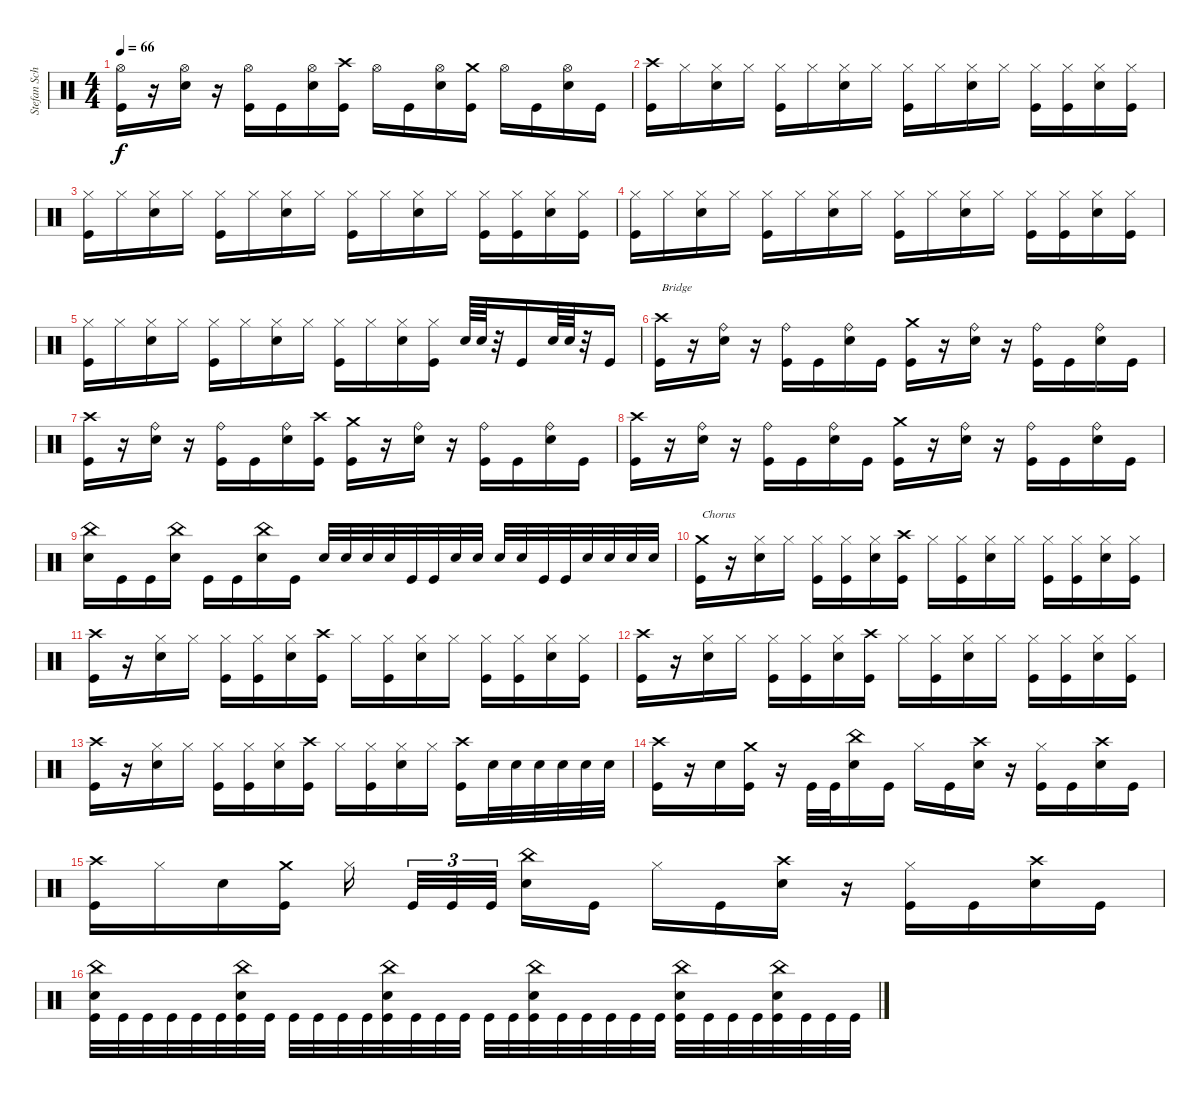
\track ("Stefan Schwarzmann" "Stefan Sch") {instrument percussion}
\staff {score}
\articulation defaults
\ts (4 4)
\tempo 66
\clef neutral
\ks c
("Kick (hit)" "Hi-Hat (open)").16{dy f} r.16 ("Snare (hit) 2" "Hi-Hat (open)").16 r.16 ("Kick (hit)" "Hi-Hat (open)").16 "Kick (hit)".16 ("Snare (hit) 2" "Hi-Hat (open)").16 ("Kick (hit)" "Crash high (hit)").16 "Hi-Hat (open)".16 "Kick (hit)".16 ("Snare (hit) 2" "Hi-Hat (open)").16 ("Kick (hit)" "Crash medium (hit)").16 "Hi-Hat (open)".16 "Kick (hit)".16 ("Snare (hit) 2" "Hi-Hat (open)").16 "Kick (hit)".16 |
("Kick (hit)" "Crash high (hit)").16 "Hi-Hat (closed)".16 ("Hi-Hat (closed)" "Snare (hit) 2").16 "Hi-Hat (closed)".16 ("Hi-Hat (closed)" "Kick (hit)").16 "Hi-Hat (closed)".16 ("Snare (hit) 2" "Hi-Hat (closed)").16 "Hi-Hat (closed)".16 ("Hi-Hat (closed)" "Kick (hit)").16 "Hi-Hat (closed)".16 ("Snare (hit) 2" "Hi-Hat (closed)").16 "Hi-Hat (closed)".16 ("Kick (hit)" "Hi-Hat (closed)").16 ("Kick (hit)" "Hi-Hat (closed)").16 ("Snare (hit) 2" "Hi-Hat (closed)").16 ("Kick (hit)" "Hi-Hat (closed)").16 |
("Kick (hit)" "Hi-Hat (closed)").16 "Hi-Hat (closed)".16 ("Hi-Hat (closed)" "Snare (hit) 2").16 "Hi-Hat (closed)".16 ("Hi-Hat (closed)" "Kick (hit)").16 "Hi-Hat (closed)".16 ("Snare (hit) 2" "Hi-Hat (closed)").16 "Hi-Hat (closed)".16 ("Hi-Hat (closed)" "Kick (hit)").16 "Hi-Hat (closed)".16 ("Snare (hit) 2" "Hi-Hat (closed)").16 "Hi-Hat (closed)".16 ("Kick (hit)" "Hi-Hat (closed)").16 ("Kick (hit)" "Hi-Hat (closed)").16 ("Snare (hit) 2" "Hi-Hat (closed)").16 ("Kick (hit)" "Hi-Hat (closed)").16 |
("Kick (hit)" "Hi-Hat (closed)").16 "Hi-Hat (closed)".16 ("Hi-Hat (closed)" "Snare (hit) 2").16 "Hi-Hat (closed)".16 ("Hi-Hat (closed)" "Kick (hit)").16 "Hi-Hat (closed)".16 ("Snare (hit) 2" "Hi-Hat (closed)").16 "Hi-Hat (closed)".16 ("Hi-Hat (closed)" "Kick (hit)").16 "Hi-Hat (closed)".16 ("Snare (hit) 2" "Hi-Hat (closed)").16 "Hi-Hat (closed)".16 ("Kick (hit)" "Hi-Hat (closed)").16 ("Kick (hit)" "Hi-Hat (closed)").16 ("Snare (hit) 2" "Hi-Hat (closed)").16 ("Kick (hit)" "Hi-Hat (closed)").16 |
("Kick (hit)" "Hi-Hat (closed)").16 "Hi-Hat (closed)".16 ("Hi-Hat (closed)" "Snare (hit) 2").16 "Hi-Hat (closed)".16 ("Hi-Hat (closed)" "Kick (hit)").16 "Hi-Hat (closed)".16 ("Snare (hit) 2" "Hi-Hat (closed)").16 "Hi-Hat (closed)".16 ("Hi-Hat (closed)" "Kick (hit)").16 "Hi-Hat (closed)".16 ("Snare (hit) 2" "Hi-Hat (closed)").16 ("Kick (hit)" "Hi-Hat (closed)").16 "Snare (hit) 2".64 "Snare (hit) 2".64 r.32 "Kick (hit)".16 "Snare (hit) 2".64 "Snare (hit) 2".64 r.32 "Kick (hit)".16 |
("Kick (hit)" "Crash high (hit)").16{txt "Bridge"} r.16 ("Snare (hit) 2" "Ride (bell)").16 r.16 ("Kick (hit)" "Ride (bell)").16 "Kick (hit)".16 ("Snare (hit) 2" "Ride (bell)").16 "Kick (hit)".16 ("Kick (hit)" "Crash medium (hit)").16 r.16 ("Snare (hit) 2" "Ride (bell)").16 r.16 ("Kick (hit)" "Ride (bell)").16 "Kick (hit)".16 ("Ride (bell)" "Snare (hit) 2").16 "Kick (hit)".16 |
("Kick (hit)" "Crash high (hit)").16 r.16 ("Snare (hit) 2" "Ride (bell)").16 r.16 ("Kick (hit)" "Ride (bell)").16 "Kick (hit)".16 ("Snare (hit) 2" "Ride (bell)").16 ("Kick (hit)" "Crash high (hit)").16 ("Kick (hit)" "Crash medium (hit)").16 r.16 ("Snare (hit) 2" "Ride (bell)").16 r.16 ("Kick (hit)" "Ride (bell)").16 "Kick (hit)".16 ("Ride (bell)" "Snare (hit) 2").16 "Kick (hit)".16 |
("Kick (hit)" "Crash high (hit)").16 r.16 ("Snare (hit) 2" "Ride (bell)").16 r.16 ("Kick (hit)" "Ride (bell)").16 "Kick (hit)".16 ("Snare (hit) 2" "Ride (bell)").16 "Kick (hit)".16 ("Kick (hit)" "Crash medium (hit)").16 r.16 ("Snare (hit) 2" "Ride (bell)").16 r.16 ("Kick (hit)" "Ride (bell)").16 "Kick (hit)".16 ("Ride (bell)" "Snare (hit) 2").16 "Kick (hit)".16 |
("Snare (hit) 2" "China (hit)").16 "Kick (hit)".16 "Kick (hit)".16 ("Snare (hit) 2" "China (hit)").16 "Kick (hit)".16 "Kick (hit)".16 ("Snare (hit) 2" "China (hit)").16 "Kick (hit)".16 "Snare (hit) 2".32 "Snare (hit) 2".32 "Snare (hit) 2".32 "Snare (hit) 2".32 "Kick (hit)".32 "Kick (hit)".32 "Snare (hit) 2".32 "Snare (hit) 2".32 "Snare (hit) 2".32 "Snare (hit) 2".32 "Kick (hit)".32 "Kick (hit)".32 "Snare (hit) 2".32 "Snare (hit) 2".32 "Snare (hit) 2".32 "Snare (hit) 2".32 |
("Kick (hit)" "Crash medium (hit)").16{txt "Chorus"} r.16 ("Snare (hit) 2" "Hi-Hat (closed)").16 "Hi-Hat (closed)".16 ("Kick (hit)" "Hi-Hat (closed)").16 ("Kick (hit)" "Hi-Hat (closed)").16 ("Snare (hit) 2" "Hi-Hat (closed)").16 ("Kick (hit)" "Crash high (hit)").16 "Hi-Hat (closed)".16 ("Kick (hit)" "Hi-Hat (closed)").16 ("Snare (hit) 2" "Hi-Hat (closed)").16 "Hi-Hat (closed)".16 ("Kick (hit)" "Hi-Hat (closed)").16 ("Kick (hit)" "Hi-Hat (closed)").16 ("Snare (hit) 2" "Hi-Hat (closed)").16 ("Kick (hit)" "Hi-Hat (closed)").16 |
("Kick (hit)" "Crash high (hit)").16 r.16 ("Snare (hit) 2" "Hi-Hat (closed)").16 "Hi-Hat (closed)".16 ("Kick (hit)" "Hi-Hat (closed)").16 ("Kick (hit)" "Hi-Hat (closed)").16 ("Snare (hit) 2" "Hi-Hat (closed)").16 ("Kick (hit)" "Crash high (hit)").16 "Hi-Hat (closed)".16 ("Kick (hit)" "Hi-Hat (closed)").16 ("Snare (hit) 2" "Hi-Hat (closed)").16 "Hi-Hat (closed)".16 ("Kick (hit)" "Hi-Hat (closed)").16 ("Kick (hit)" "Hi-Hat (closed)").16 ("Snare (hit) 2" "Hi-Hat (closed)").16 ("Kick (hit)" "Hi-Hat (closed)").16 |
("Kick (hit)" "Crash high (hit)").16 r.16 ("Snare (hit) 2" "Hi-Hat (closed)").16 "Hi-Hat (closed)".16 ("Kick (hit)" "Hi-Hat (closed)").16 ("Kick (hit)" "Hi-Hat (closed)").16 ("Snare (hit) 2" "Hi-Hat (closed)").16 ("Kick (hit)" "Crash high (hit)").16 "Hi-Hat (closed)".16 ("Kick (hit)" "Hi-Hat (closed)").16 ("Snare (hit) 2" "Hi-Hat (closed)").16 "Hi-Hat (closed)".16 ("Kick (hit)" "Hi-Hat (closed)").16 ("Kick (hit)" "Hi-Hat (closed)").16 ("Snare (hit) 2" "Hi-Hat (closed)").16 ("Kick (hit)" "Hi-Hat (closed)").16 |
("Kick (hit)" "Crash high (hit)").16 r.16 ("Snare (hit) 2" "Hi-Hat (closed)").16 "Hi-Hat (closed)".16 ("Kick (hit)" "Hi-Hat (closed)").16 ("Kick (hit)" "Hi-Hat (closed)").16 ("Snare (hit) 2" "Hi-Hat (closed)").16 ("Kick (hit)" "Crash high (hit)").16 "Hi-Hat (closed)".16 ("Kick (hit)" "Hi-Hat (closed)").16 ("Snare (hit) 2" "Hi-Hat (closed)").16 "Hi-Hat (closed)".16 ("Kick (hit)" "Crash high (hit)").16 "Snare (hit) 2".32 "Snare (hit) 2".32 "Snare (hit) 2".32 "Snare (hit) 2".32 "Snare (hit) 2".32 "Snare (hit) 2".32 |
("Kick (hit)" "Crash high (hit)").16 r.16 "Snare (hit) 2".16 ("Kick (hit)" "Crash medium (hit)").16 r.16 "Kick (hit)".32 "Kick (hit)".32 ("Snare (hit) 2" "China (hit)").16 "Kick (hit)".16 "Hi-Hat (closed)".16 "Kick (hit)".16 ("Crash high (hit)" "Snare (hit) 2").16 r.16 ("Kick (hit)" "Hi-Hat (closed)").16 "Kick (hit)".16 ("Snare (hit) 2" "Crash high (hit)").16 "Kick (hit)".16 |
("Kick (hit)" "Crash high (hit)").16 "Hi-Hat (closed)".16 "Snare (hit) 2".16 ("Kick (hit)" "Crash medium (hit)").16 "Hi-Hat (closed)".16 "Kick (hit)".32{tu (3 2)} "Kick (hit)".32{tu (3 2)} "Kick (hit)".32{tu (3 2)} ("Snare (hit) 2" "China (hit)").16 "Kick (hit)".16 "Hi-Hat (closed)".16 "Kick (hit)".16 ("Crash high (hit)" "Snare (hit) 2").16 r.16 ("Kick (hit)" "Hi-Hat (closed)").16 "Kick (hit)".16 ("Snare (hit) 2" "Crash high (hit)").16 "Kick (hit)".16 |
("Snare (hit) 2" "Kick (hit)" "China (hit)").32 "Kick (hit)".32 "Kick (hit)".32 "Kick (hit)".32 "Kick (hit)".32 "Kick (hit)".32 ("Kick (hit)" "Snare (hit) 2" "China (hit)").32 "Kick (hit)".32 "Kick (hit)".32 "Kick (hit)".32 "Kick (hit)".32 "Kick (hit)".32 ("Kick (hit)" "Snare (hit) 2" "China (hit)").32 "Kick (hit)".32 "Kick (hit)".32 "Kick (hit)".32 "Kick (hit)".32 "Kick (hit)".32 ("Snare (hit) 2" "China (hit)" "Kick (hit)").32 "Kick (hit)".32 "Kick (hit)".32 "Kick (hit)".32 "Kick (hit)".32 "Kick (hit)".32 ("Kick (hit)" "Snare (hit) 2" "China (hit)").32 "Kick (hit)".32 "Kick (hit)".32 "Kick (hit)".32 ("Kick (hit)" "Snare (hit) 2" "China (hit)").32 "Kick (hit)".32 "Kick (hit)".32 "Kick (hit)".32
